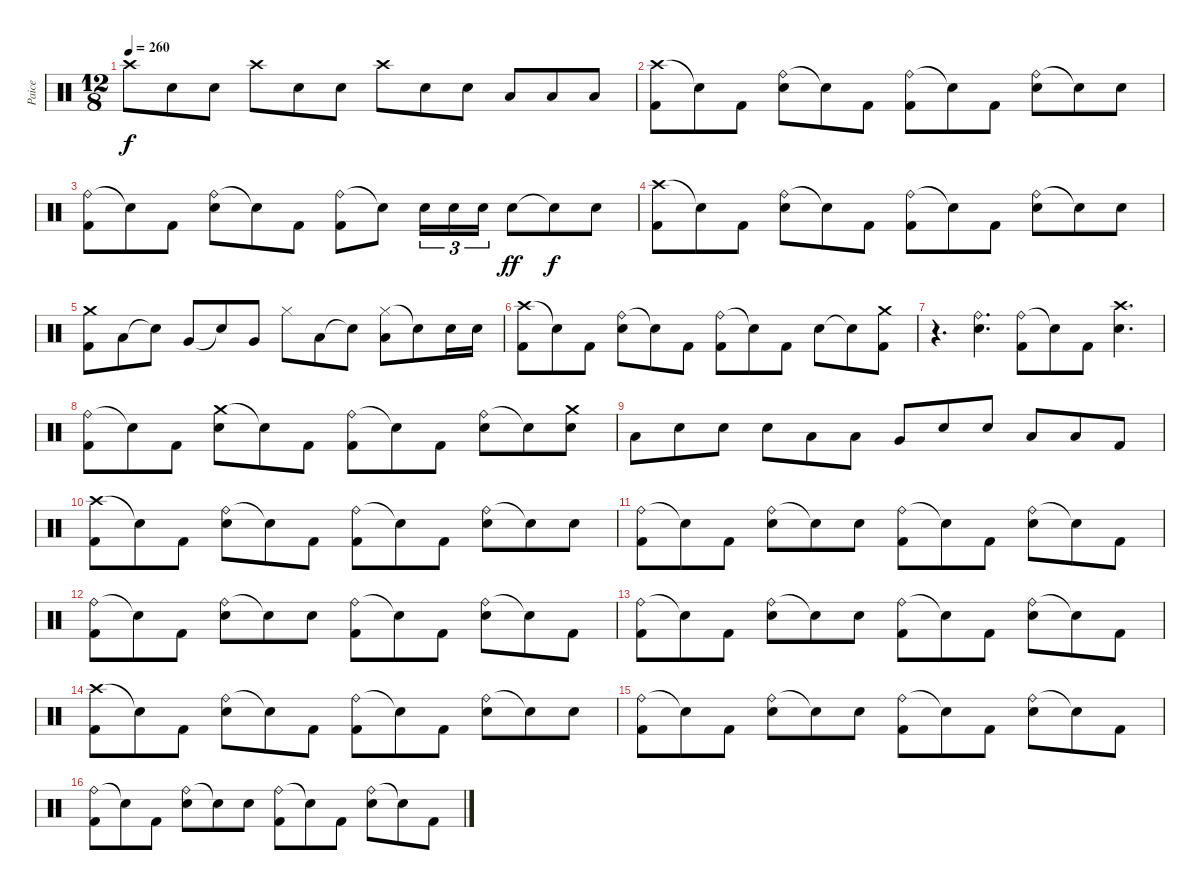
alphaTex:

\track ("Paice" "Paice") {instrument percussion}
\staff {score}
\articulation defaults
\ts (12 8)
\tempo 260
\clef neutral
\ks c "Crash high (hit)".8{dy f} "Electric Snare (hit)".8 "Electric Snare (hit)".8 "Crash high (hit)".8 "Electric Snare (hit)".8 "Electric Snare (hit)".8 "Crash high (hit)".8 "Electric Snare (hit)".8 "Electric Snare (hit)".8 "Low Tom (hit)".8 "Low Tom (hit)".8 "Low Tom (hit)".8
|
("Crash high (hit)" "Kick (hit) 2").8 "Snare (hit)"{t}.8 "Kick (hit) 2".8 ("Ride (bell)" "Electric Snare (hit)").8 "Snare (hit)"{t}.8 "Kick (hit) 2".8 ("Ride (bell)" "Kick (hit) 2").8 "Snare (hit)"{t}.8 "Kick (hit) 2".8 ("Ride (bell)" "Electric Snare (hit)").8 "Snare (hit)"{t}.8 "Electric Snare (hit)".8 |
("Ride (bell)" "Kick (hit) 2").8 "Snare (hit)"{t}.8 "Kick (hit) 2".8 ("Ride (bell)" "Electric Snare (hit)").8 "Snare (hit)"{t}.8 "Kick (hit) 2".8 ("Ride (bell)" "Kick (hit) 2").8 "Snare (hit)"{t}.8 "Electric Snare (hit)".16{tu (3 2)} "Electric Snare (hit)".16{tu (3 2)} "Electric Snare (hit)".16{tu (3 2)} "Electric Snare (hit)".8{dy ff} "Snare (hit)"{t}.8{dy f} "Electric Snare (hit)".8 |
("Crash high (hit)" "Kick (hit) 2").8 "Snare (hit)"{t}.8 "Kick (hit) 2".8 ("Ride (bell)" "Electric Snare (hit)").8 "Snare (hit)"{t}.8 "Kick (hit) 2".8 ("Ride (bell)" "Kick (hit) 2").8 "Snare (hit)"{t}.8 "Kick (hit) 2".8 ("Ride (bell)" "Electric Snare (hit)").8 "Snare (hit)"{t}.8 "Electric Snare (hit)".8 |
("Crash medium (hit)" "Kick (hit) 2").8 "Low Tom (hit)".8 "Snare (hit)"{t}.8 "Very Low Tom (hit)".8 "Snare (hit)"{t}.8 "Very Low Tom (hit)".8 "Hi-Hat (closed)".8 "Low Floor Tom (hit)".8 "Snare (hit)"{t}.8 ("Hi-Hat (closed)" "Low Floor Tom (hit)").8 "Snare (hit)"{t}.8 "Electric Snare (hit)".16 "Electric Snare (hit)".16 |
("Crash high (hit)" "Kick (hit) 2").8 "Snare (hit)"{t}.8 "Kick (hit) 2".8 ("Ride (bell)" "Electric Snare (hit)").8 "Snare (hit)"{t}.8 "Kick (hit) 2".8 ("Ride (bell)" "Kick (hit) 2").8 "Snare (hit)"{t}.8 "Kick (hit) 2".8 "Electric Snare (hit)".8 "Snare (hit)"{t}.8 ("Crash medium (hit)" "Kick (hit) 2").8 |
r.4{d} ("Ride (bell)" "Electric Snare (hit)").4{d} ("Ride (bell)" "Kick (hit) 2").8 "Snare (hit)"{t}.8 "Kick (hit) 2".8 ("Crash high (hit)" "Electric Snare (hit)").4{d} |
("Ride (bell)" "Kick (hit) 2").8 "Snare (hit)"{t}.8 "Kick (hit) 2".8 ("Crash medium (hit)" "Electric Snare (hit)").8 "Snare (hit)"{t}.8 "Kick (hit) 2".8 ("Ride (bell)" "Kick (hit) 2").8 "Snare (hit)"{t}.8 "Kick (hit) 2".8 ("Ride (bell)" "Electric Snare (hit)").8 "Snare (hit)"{t}.8 ("Crash medium (hit)" "Electric Snare (hit)").8 |
"Low Tom (hit)".8 "Electric Snare (hit)".8 "Electric Snare (hit)".8 "Electric Snare (hit)".8 "Low Tom (hit)".8 "Low Tom (hit)".8 "Very Low Tom (hit)".8 "Electric Snare (hit)".8 "Electric Snare (hit)".8 "Low Floor Tom (hit)".8 "Low Floor Tom (hit)".8 "Kick (hit) 2".8 |
("Crash high (hit)" "Kick (hit) 2").8 "Snare (hit)"{t}.8 "Kick (hit) 2".8 ("Ride (bell)" "Electric Snare (hit)").8 "Snare (hit)"{t}.8 "Kick (hit) 2".8 ("Ride (bell)" "Kick (hit) 2").8 "Snare (hit)"{t}.8 "Kick (hit) 2".8 ("Ride (bell)" "Electric Snare (hit)").8 "Snare (hit)"{t}.8 "Electric Snare (hit)".8 |
("Ride (bell)" "Kick (hit) 2").8 "Snare (hit)"{t}.8 "Kick (hit) 2".8 ("Ride (bell)" "Electric Snare (hit)").8 "Snare (hit)"{t}.8 "Electric Snare (hit)".8 ("Ride (bell)" "Kick (hit) 2").8 "Snare (hit)"{t}.8 "Kick (hit) 2".8 ("Ride (bell)" "Electric Snare (hit)").8 "Snare (hit)"{t}.8 "Kick (hit) 2".8 |
("Ride (bell)" "Kick (hit) 2").8 "Snare (hit)"{t}.8 "Kick (hit) 2".8 ("Ride (bell)" "Electric Snare (hit)").8 "Snare (hit)"{t}.8 "Electric Snare (hit)".8 ("Ride (bell)" "Kick (hit) 2").8 "Snare (hit)"{t}.8 "Kick (hit) 2".8 ("Ride (bell)" "Electric Snare (hit)").8 "Snare (hit)"{t}.8 "Kick (hit) 2".8 |
("Ride (bell)" "Kick (hit) 2").8 "Snare (hit)"{t}.8 "Kick (hit) 2".8 ("Ride (bell)" "Electric Snare (hit)").8 "Snare (hit)"{t}.8 "Electric Snare (hit)".8 ("Ride (bell)" "Kick (hit) 2").8 "Snare (hit)"{t}.8 "Kick (hit) 2".8 ("Ride (bell)" "Electric Snare (hit)").8 "Snare (hit)"{t}.8 "Kick (hit) 2".8 |
("Crash high (hit)" "Kick (hit) 2").8 "Snare (hit)"{t}.8 "Kick (hit) 2".8 ("Ride (bell)" "Electric Snare (hit)").8 "Snare (hit)"{t}.8 "Kick (hit) 2".8 ("Ride (bell)" "Kick (hit) 2").8 "Snare (hit)"{t}.8 "Kick (hit) 2".8 ("Ride (bell)" "Electric Snare (hit)").8 "Snare (hit)"{t}.8 "Electric Snare (hit)".8 |
("Ride (bell)" "Kick (hit) 2").8 "Snare (hit)"{t}.8 "Kick (hit) 2".8 ("Ride (bell)" "Electric Snare (hit)").8 "Snare (hit)"{t}.8 "Electric Snare (hit)".8 ("Ride (bell)" "Kick (hit) 2").8 "Snare (hit)"{t}.8 "Kick (hit) 2".8 ("Ride (bell)" "Electric Snare (hit)").8 "Snare (hit)"{t}.8 "Kick (hit) 2".8 |
("Ride (bell)" "Kick (hit) 2").8 "Snare (hit)"{t}.8 "Kick (hit) 2".8 ("Ride (bell)" "Electric Snare (hit)").8 "Snare (hit)"{t}.8 "Electric Snare (hit)".8 ("Ride (bell)" "Kick (hit) 2").8 "Snare (hit)"{t}.8 "Kick (hit) 2".8 ("Ride (bell)" "Electric Snare (hit)").8 "Snare (hit)"{t}.8 "Kick (hit) 2".8
